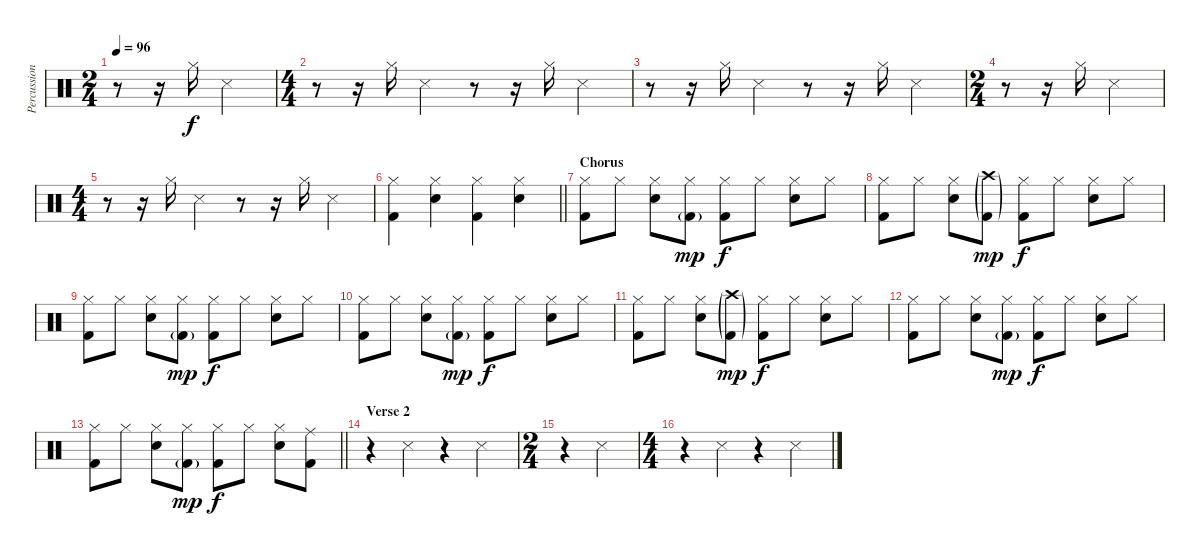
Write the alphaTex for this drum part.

\track ("Percussion" "Percussion") {instrument percussion}
\staff {score}
\articulation defaults
\ts (2 4)
\tempo 96
\clef neutral
\ks c
r.8{dy f} r.16 "Hi-Hat (closed)".16 "Snare (side stick) 3".4 |
\ts (4 4)
r.8 r.16 "Hi-Hat (closed)".16 "Snare (side stick) 3".4 r.8 r.16 "Hi-Hat (closed)".16 "Snare (side stick) 3".4 |
r.8 r.16 "Hi-Hat (closed)".16 "Snare (side stick) 3".4 r.8 r.16 "Hi-Hat (closed)".16 "Snare (side stick) 3".4 |
\ts (2 4)
r.8 r.16 "Hi-Hat (closed)".16 "Snare (side stick) 3".4 |
\ts (4 4)
r.8 r.16 "Hi-Hat (closed)".16 "Snare (side stick) 3".4 r.8 r.16 "Hi-Hat (closed)".16 "Snare (side stick) 3".4 |
\barLineRight lightlight
("Hi-Hat (closed)" "Kick (hit) 2").4 ("Hi-Hat (closed)" "Snare (hit) 2").4 ("Hi-Hat (closed)" "Kick (hit) 2").4 ("Hi-Hat (closed)" "Snare (hit) 2").4 |
\section ("" "Chorus")
("Hi-Hat (closed)" "Kick (hit) 2").8 "Hi-Hat (closed)".8 ("Hi-Hat (closed)" "Snare (hit) 2").8 ("Hi-Hat (closed)" "Kick (hit) 2"{g}).8{dy mp} ("Hi-Hat (closed)" "Kick (hit) 2").8{dy f} "Hi-Hat (closed)".8 ("Hi-Hat (closed)" "Snare (hit) 2").8 "Hi-Hat (closed)".8 |
("Hi-Hat (closed)" "Kick (hit) 2").8 "Hi-Hat (closed)".8 ("Hi-Hat (closed)" "Snare (hit) 2").8 ("Crash high (hit)"{g} "Kick (hit) 2"{g}).8{dy mp} ("Hi-Hat (closed)" "Kick (hit) 2").8{dy f} "Hi-Hat (closed)".8 ("Hi-Hat (closed)" "Snare (hit) 2").8 "Hi-Hat (closed)".8 |
("Hi-Hat (closed)" "Kick (hit) 2").8 "Hi-Hat (closed)".8 ("Hi-Hat (closed)" "Snare (hit) 2").8 ("Hi-Hat (closed)" "Kick (hit) 2"{g}).8{dy mp} ("Hi-Hat (closed)" "Kick (hit) 2").8{dy f} "Hi-Hat (closed)".8 ("Hi-Hat (closed)" "Snare (hit) 2").8 "Hi-Hat (closed)".8 |
("Hi-Hat (closed)" "Kick (hit) 2").8 "Hi-Hat (closed)".8 ("Hi-Hat (closed)" "Snare (hit) 2").8 ("Hi-Hat (closed)" "Kick (hit) 2"{g}).8{dy mp} ("Hi-Hat (closed)" "Kick (hit) 2").8{dy f} "Hi-Hat (closed)".8 ("Hi-Hat (closed)" "Snare (hit) 2").8 "Hi-Hat (closed)".8 |
("Hi-Hat (closed)" "Kick (hit) 2").8 "Hi-Hat (closed)".8 ("Hi-Hat (closed)" "Snare (hit) 2").8 ("Crash high (hit)"{g} "Kick (hit) 2"{g}).8{dy mp} ("Hi-Hat (closed)" "Kick (hit) 2").8{dy f} "Hi-Hat (closed)".8 ("Hi-Hat (closed)" "Snare (hit) 2").8 "Hi-Hat (closed)".8 |
("Hi-Hat (closed)" "Kick (hit) 2").8 "Hi-Hat (closed)".8 ("Hi-Hat (closed)" "Snare (hit) 2").8 ("Hi-Hat (closed)" "Kick (hit) 2"{g}).8{dy mp} ("Hi-Hat (closed)" "Kick (hit) 2").8{dy f} "Hi-Hat (closed)".8 ("Hi-Hat (closed)" "Snare (hit) 2").8 "Hi-Hat (closed)".8 |
\barLineRight lightlight
("Hi-Hat (closed)" "Kick (hit) 2").8 "Hi-Hat (closed)".8 ("Hi-Hat (closed)" "Snare (hit) 2").8 ("Hi-Hat (closed)" "Kick (hit) 2"{g}).8{dy mp} ("Hi-Hat (closed)" "Kick (hit) 2").8{dy f} "Hi-Hat (closed)".8 ("Hi-Hat (closed)" "Snare (hit) 2").8 ("Ride (middle)" "Kick (hit) 2").8 |
\section ("" "Verse 2")
r.4 "Snare (side stick) 3".4 r.4 "Snare (side stick) 3".4 |
\ts (2 4)
r.4 "Snare (side stick) 3".4 |
\ts (4 4)
r.4 "Snare (side stick) 3".4 r.4 "Snare (side stick) 3".4
